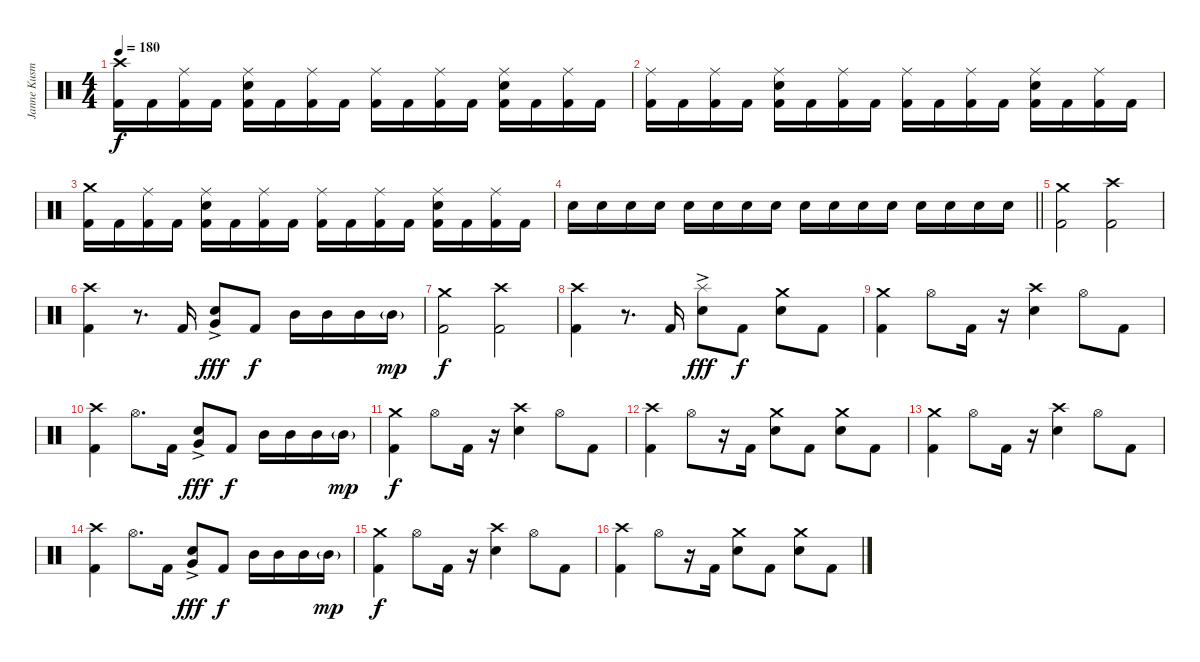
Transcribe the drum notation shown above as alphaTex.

\track ("Janne Kusmin - Drums" "Janne Kusm") {instrument percussion}
\staff {score}
\articulation defaults
\ts (4 4)
\tempo 180
\clef neutral
\ks c
("Crash high (hit)" "Kick (hit) 2").16{dy f} "Kick (hit) 2".16 ("Ride (middle)" "Kick (hit) 2").16 "Kick (hit) 2".16 ("Ride (middle)" "Electric Snare (hit)" "Kick (hit) 2").16 "Kick (hit) 2".16 ("Ride (middle)" "Kick (hit) 2").16 "Kick (hit) 2".16 ("Ride (middle)" "Kick (hit) 2").16 "Kick (hit) 2".16 ("Ride (middle)" "Kick (hit) 2").16 "Kick (hit) 2".16 ("Ride (middle)" "Electric Snare (hit)" "Kick (hit) 2").16 "Kick (hit) 2".16 ("Ride (middle)" "Kick (hit) 2").16 "Kick (hit) 2".16 |
("Ride (middle)" "Kick (hit) 2").16 "Kick (hit) 2".16 ("Ride (middle)" "Kick (hit) 2").16 "Kick (hit) 2".16 ("Ride (middle)" "Electric Snare (hit)" "Kick (hit) 2").16 "Kick (hit) 2".16 ("Ride (middle)" "Kick (hit) 2").16 "Kick (hit) 2".16 ("Ride (middle)" "Kick (hit) 2").16 "Kick (hit) 2".16 ("Ride (middle)" "Kick (hit) 2").16 "Kick (hit) 2".16 ("Ride (middle)" "Electric Snare (hit)" "Kick (hit) 2").16 "Kick (hit) 2".16 ("Ride (middle)" "Kick (hit) 2").16 "Kick (hit) 2".16 |
("Crash medium (hit)" "Kick (hit) 2").16 "Kick (hit) 2".16 ("Ride (middle)" "Kick (hit) 2").16 "Kick (hit) 2".16 ("Ride (middle)" "Electric Snare (hit)" "Kick (hit) 2").16 "Kick (hit) 2".16 ("Ride (middle)" "Kick (hit) 2").16 "Kick (hit) 2".16 ("Ride (middle)" "Kick (hit) 2").16 "Kick (hit) 2".16 ("Ride (middle)" "Kick (hit) 2").16 "Kick (hit) 2".16 ("Ride (middle)" "Electric Snare (hit)" "Kick (hit) 2").16 "Kick (hit) 2".16 ("Ride (middle)" "Kick (hit) 2").16 "Kick (hit) 2".16 |
\barLineRight lightlight "Electric Snare (hit)".16 "Electric Snare (hit)".16 "Electric Snare (hit)".16 "Electric Snare (hit)".16 "Electric Snare (hit)".16 "Electric Snare (hit)".16 "Electric Snare (hit)".16 "Electric Snare (hit)".16 "Electric Snare (hit)".16 "Electric Snare (hit)".16 "Electric Snare (hit)".16 "Electric Snare (hit)".16 "Electric Snare (hit)".16 "Electric Snare (hit)".16 "Electric Snare (hit)".16 "Electric Snare (hit)".16
|
\section ("" "")
("Crash medium (hit)" "Kick (hit) 2").2 ("Crash high (hit)" "Kick (hit) 2").2 |
("Crash high (hit)" "Kick (hit) 2").4 r.8{d} "Kick (hit) 2".16 ("Very Low Tom (hit)"{ac} "Electric Snare (hit)").8{dy fff} "Kick (hit) 2".8{dy f} "Mid Tom (hit)".16 "Mid Tom (hit)".16 "Mid Tom (hit)".16 "Mid Tom (hit)"{g}.16{dy mp} |
("Crash medium (hit)" "Kick (hit) 2").2{dy f} ("Crash high (hit)" "Kick (hit) 2").2 |
("Crash high (hit)" "Kick (hit) 2").4 r.8{d} "Kick (hit) 2".16 ("Splash (hit)"{ac} "Electric Snare (hit)").8{dy fff} "Kick (hit) 2".8{dy f} ("Crash medium (hit)" "Electric Snare (hit)").8 "Kick (hit) 2".8 |
("Crash medium (hit)" "Kick (hit) 2").4 "Hi-Hat (open)".8 "Kick (hit) 2".16 r.16 ("Crash high (hit)" "Electric Snare (hit)").4 "Hi-Hat (open)".8 "Kick (hit) 2".8 |
("Crash high (hit)" "Kick (hit) 2").4 "Hi-Hat (open)".8{d} "Kick (hit) 2".16 ("Very Low Tom (hit)"{ac} "Electric Snare (hit)").8{dy fff} "Kick (hit) 2".8{dy f} "Mid Tom (hit)".16 "Mid Tom (hit)".16 "Mid Tom (hit)".16 "Mid Tom (hit)"{g}.16{dy mp} |
("Crash medium (hit)" "Kick (hit) 2").4{dy f} "Hi-Hat (open)".8 "Kick (hit) 2".16 r.16 ("Crash high (hit)" "Electric Snare (hit)").4 "Hi-Hat (open)".8 "Kick (hit) 2".8 |
("Crash high (hit)" "Kick (hit) 2").4 "Hi-Hat (open)".8 r.16 "Kick (hit) 2".16 ("Crash medium (hit)" "Electric Snare (hit)").8 "Kick (hit) 2".8 ("Crash medium (hit)" "Electric Snare (hit)").8 "Kick (hit) 2".8 |
("Crash medium (hit)" "Kick (hit) 2").4 "Hi-Hat (open)".8 "Kick (hit) 2".16 r.16 ("Crash high (hit)" "Electric Snare (hit)").4 "Hi-Hat (open)".8 "Kick (hit) 2".8 |
("Crash high (hit)" "Kick (hit) 2").4 "Hi-Hat (open)".8{d} "Kick (hit) 2".16 ("Very Low Tom (hit)"{ac} "Electric Snare (hit)").8{dy fff} "Kick (hit) 2".8{dy f} "Mid Tom (hit)".16 "Mid Tom (hit)".16 "Mid Tom (hit)".16 "Mid Tom (hit)"{g}.16{dy mp} |
("Crash medium (hit)" "Kick (hit) 2").4{dy f} "Hi-Hat (open)".8 "Kick (hit) 2".16 r.16 ("Crash high (hit)" "Electric Snare (hit)").4 "Hi-Hat (open)".8 "Kick (hit) 2".8 |
("Crash high (hit)" "Kick (hit) 2").4 "Hi-Hat (open)".8 r.16 "Kick (hit) 2".16 ("Crash medium (hit)" "Electric Snare (hit)").8 "Kick (hit) 2".8 ("Crash medium (hit)" "Electric Snare (hit)").8 "Kick (hit) 2".8
